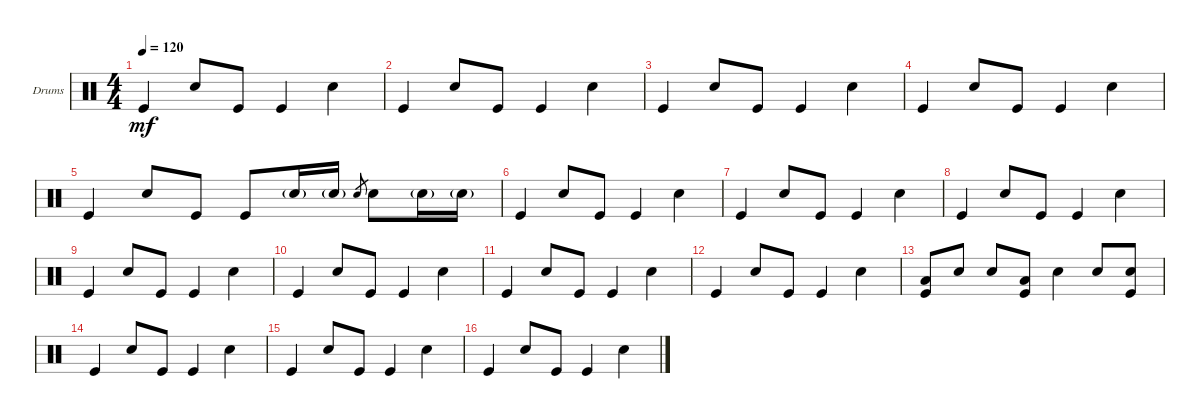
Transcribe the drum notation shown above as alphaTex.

\defaultSystemsLayout 4
\bracketExtendMode groupsimilarinstruments
\firstSystemTrackNameOrientation horizontal
\otherSystemsTrackNameOrientation horizontal
\track ("Drumkit" "Drums") {multiBarRest instrument percussion}
\staff {score}
\articulation defaults
\ts (4 4)
\tempo 120
\clef neutral
\ks c "Kick (hit)".4{dy mf} "Snare (hit) 2".8 "Kick (hit)".8 "Kick (hit)".4 "Snare (hit) 2".4
|
"Kick (hit)".4 "Snare (hit) 2".8 "Kick (hit)".8 "Kick (hit)".4 "Snare (hit) 2".4 |
"Kick (hit)".4 "Snare (hit) 2".8 "Kick (hit)".8 "Kick (hit)".4 "Snare (hit) 2".4 |
"Kick (hit)".4 "Snare (hit) 2".8 "Kick (hit)".8 "Kick (hit)".4 "Snare (hit) 2".4 |
"Kick (hit)".4 "Snare (hit) 2".8 "Kick (hit)".8 "Kick (hit)".8 "Snare (hit) 2"{g}.16 "Snare (hit) 2"{g}.16 "Snare (hit) 2".8{gr} "Snare (hit) 2".8 "Snare (hit) 2"{g}.16 "Snare (hit) 2"{g}.16 |
"Kick (hit)".4 "Snare (hit) 2".8 "Kick (hit)".8 "Kick (hit)".4 "Snare (hit) 2".4 |
"Kick (hit)".4 "Snare (hit) 2".8 "Kick (hit)".8 "Kick (hit)".4 "Snare (hit) 2".4 |
"Kick (hit)".4 "Snare (hit) 2".8 "Kick (hit)".8 "Kick (hit)".4 "Snare (hit) 2".4 |
"Kick (hit)".4 "Snare (hit) 2".8 "Kick (hit)".8 "Kick (hit)".4 "Snare (hit) 2".4 |
"Kick (hit)".4 "Snare (hit) 2".8 "Kick (hit)".8 "Kick (hit)".4 "Snare (hit) 2".4 |
"Kick (hit)".4 "Snare (hit) 2".8 "Kick (hit)".8 "Kick (hit)".4 "Snare (hit) 2".4 |
"Kick (hit)".4 "Snare (hit) 2".8 "Kick (hit)".8 "Kick (hit)".4 "Snare (hit) 2".4 |
("Kick (hit)" "Low Tom (hit)").8 "Snare (hit) 2".8 "Snare (hit) 2".8 ("Kick (hit)" "Low Tom (hit)").8 "Snare (hit) 2".4 "Snare (hit) 2".8 ("Snare (hit) 2" "Kick (hit)").8 |
"Kick (hit)".4 "Snare (hit) 2".8 "Kick (hit)".8 "Kick (hit)".4 "Snare (hit) 2".4 |
"Kick (hit)".4 "Snare (hit) 2".8 "Kick (hit)".8 "Kick (hit)".4 "Snare (hit) 2".4 |
"Kick (hit)".4 "Snare (hit) 2".8 "Kick (hit)".8 "Kick (hit)".4 "Snare (hit) 2".4
